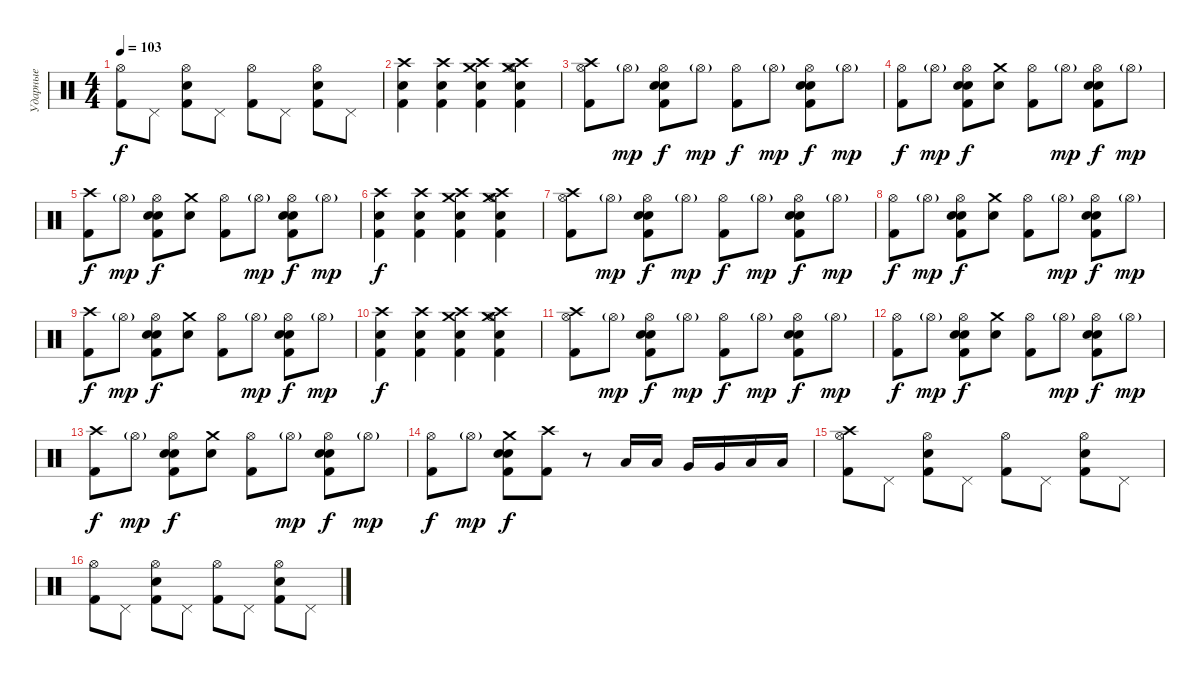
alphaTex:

\track ("Ударные" "Ударные") {instrument percussion}
\staff {score}
\articulation defaults
\ts (4 4)
\tempo 103
\clef neutral
\ks c
("Hi-Hat (open)" "Kick (hit) 2").8{dy f} "Pedal Hi-Hat (hit)".8 ("Hi-Hat (open)" "Snare (hit) 2" "Kick (hit) 2").8 "Pedal Hi-Hat (hit)".8 ("Hi-Hat (open)" "Kick (hit) 2").8 "Pedal Hi-Hat (hit)".8 ("Hi-Hat (open)" "Snare (hit) 2" "Kick (hit) 2").8 "Pedal Hi-Hat (hit)".8 |
("Crash high (hit)" "Snare (hit) 2" "Kick (hit) 2").4 ("Crash high (hit)" "Snare (hit) 2" "Kick (hit) 2").4 ("Crash medium (hit)" "Crash high (hit)" "Snare (hit) 2" "Kick (hit) 2").4 ("Crash medium (hit)" "Crash high (hit)" "Snare (hit) 2" "Hi-Hat (open)" "Kick (hit) 2").4 |
("Crash high (hit)" "Hi-Hat (open)" "Kick (hit) 2").8 "Hi-Hat (open)"{g}.8{dy mp} ("Hi-Hat (open)" "Snare (hit) 2" "Hand Clap (hit)" "Kick (hit) 2").8{dy f} "Hi-Hat (open)"{g}.8{dy mp} ("Hi-Hat (open)" "Kick (hit) 2").8{dy f} "Hi-Hat (open)"{g}.8{dy mp} ("Hi-Hat (open)" "Snare (hit) 2" "Hand Clap (hit)" "Kick (hit) 2").8{dy f} "Hi-Hat (open)"{g}.8{dy mp} |
("Hi-Hat (open)" "Kick (hit) 2").8{dy f} "Hi-Hat (open)"{g}.8{dy mp} ("Hi-Hat (open)" "Snare (hit) 2" "Hand Clap (hit)" "Kick (hit) 2").8{dy f} ("Crash medium (hit)" "Snare (hit) 2").8 ("Hi-Hat (open)" "Kick (hit) 2").8 "Hi-Hat (open)"{g}.8{dy mp} ("Hi-Hat (open)" "Snare (hit) 2" "Hand Clap (hit)" "Kick (hit) 2").8{dy f} "Hi-Hat (open)"{g}.8{dy mp} |
("Crash high (hit)" "Kick (hit) 2").8{dy f} "Hi-Hat (open)"{g}.8{dy mp} ("Hi-Hat (open)" "Snare (hit) 2" "Hand Clap (hit)" "Kick (hit) 2").8{dy f} ("Crash medium (hit)" "Snare (hit) 2").8 ("Hi-Hat (open)" "Kick (hit) 2").8 "Hi-Hat (open)"{g}.8{dy mp} ("Hi-Hat (open)" "Snare (hit) 2" "Hand Clap (hit)" "Kick (hit) 2").8{dy f} "Hi-Hat (open)"{g}.8{dy mp} |
("Crash high (hit)" "Snare (hit) 2" "Kick (hit) 2").4{dy f} ("Crash high (hit)" "Snare (hit) 2" "Kick (hit) 2").4 ("Crash medium (hit)" "Crash high (hit)" "Snare (hit) 2" "Kick (hit) 2").4 ("Crash medium (hit)" "Crash high (hit)" "Snare (hit) 2" "Hi-Hat (open)" "Kick (hit) 2").4 |
("Crash high (hit)" "Hi-Hat (open)" "Kick (hit) 2").8 "Hi-Hat (open)"{g}.8{dy mp} ("Hi-Hat (open)" "Snare (hit) 2" "Hand Clap (hit)" "Kick (hit) 2").8{dy f} "Hi-Hat (open)"{g}.8{dy mp} ("Hi-Hat (open)" "Kick (hit) 2").8{dy f} "Hi-Hat (open)"{g}.8{dy mp} ("Hi-Hat (open)" "Snare (hit) 2" "Hand Clap (hit)" "Kick (hit) 2").8{dy f} "Hi-Hat (open)"{g}.8{dy mp} |
("Hi-Hat (open)" "Kick (hit) 2").8{dy f} "Hi-Hat (open)"{g}.8{dy mp} ("Hi-Hat (open)" "Snare (hit) 2" "Hand Clap (hit)" "Kick (hit) 2").8{dy f} ("Crash medium (hit)" "Snare (hit) 2").8 ("Hi-Hat (open)" "Kick (hit) 2").8 "Hi-Hat (open)"{g}.8{dy mp} ("Hi-Hat (open)" "Snare (hit) 2" "Hand Clap (hit)" "Kick (hit) 2").8{dy f} "Hi-Hat (open)"{g}.8{dy mp} |
("Crash high (hit)" "Kick (hit) 2").8{dy f} "Hi-Hat (open)"{g}.8{dy mp} ("Hi-Hat (open)" "Snare (hit) 2" "Hand Clap (hit)" "Kick (hit) 2").8{dy f} ("Crash medium (hit)" "Snare (hit) 2").8 ("Hi-Hat (open)" "Kick (hit) 2").8 "Hi-Hat (open)"{g}.8{dy mp} ("Hi-Hat (open)" "Snare (hit) 2" "Hand Clap (hit)" "Kick (hit) 2").8{dy f} "Hi-Hat (open)"{g}.8{dy mp} |
("Crash high (hit)" "Snare (hit) 2" "Kick (hit) 2").4{dy f} ("Crash high (hit)" "Snare (hit) 2" "Kick (hit) 2").4 ("Crash medium (hit)" "Crash high (hit)" "Snare (hit) 2" "Kick (hit) 2").4 ("Crash medium (hit)" "Crash high (hit)" "Snare (hit) 2" "Hi-Hat (open)" "Kick (hit) 2").4 |
("Crash high (hit)" "Hi-Hat (open)" "Kick (hit) 2").8 "Hi-Hat (open)"{g}.8{dy mp} ("Hi-Hat (open)" "Snare (hit) 2" "Hand Clap (hit)" "Kick (hit) 2").8{dy f} "Hi-Hat (open)"{g}.8{dy mp} ("Hi-Hat (open)" "Kick (hit) 2").8{dy f} "Hi-Hat (open)"{g}.8{dy mp} ("Hi-Hat (open)" "Snare (hit) 2" "Hand Clap (hit)" "Kick (hit) 2").8{dy f} "Hi-Hat (open)"{g}.8{dy mp} |
("Hi-Hat (open)" "Kick (hit) 2").8{dy f} "Hi-Hat (open)"{g}.8{dy mp} ("Hi-Hat (open)" "Snare (hit) 2" "Hand Clap (hit)" "Kick (hit) 2").8{dy f} ("Crash medium (hit)" "Snare (hit) 2").8 ("Hi-Hat (open)" "Kick (hit) 2").8 "Hi-Hat (open)"{g}.8{dy mp} ("Hi-Hat (open)" "Snare (hit) 2" "Hand Clap (hit)" "Kick (hit) 2").8{dy f} "Hi-Hat (open)"{g}.8{dy mp} |
("Crash high (hit)" "Kick (hit) 2").8{dy f} "Hi-Hat (open)"{g}.8{dy mp} ("Hi-Hat (open)" "Snare (hit) 2" "Hand Clap (hit)" "Kick (hit) 2").8{dy f} ("Crash medium (hit)" "Snare (hit) 2").8 ("Hi-Hat (open)" "Kick (hit) 2").8 "Hi-Hat (open)"{g}.8{dy mp} ("Hi-Hat (open)" "Snare (hit) 2" "Hand Clap (hit)" "Kick (hit) 2").8{dy f} "Hi-Hat (open)"{g}.8{dy mp} |
("Hi-Hat (open)" "Kick (hit) 2").8{dy f} "Hi-Hat (open)"{g}.8{dy mp} ("Crash medium (hit)" "Snare (hit) 2" "Hand Clap (hit)" "Kick (hit) 2").8{dy f} ("Crash high (hit)" "Kick (hit) 2").8 r.8 "Low Tom (hit)".16 "Low Tom (hit)".16 "Very Low Tom (hit)".16 "Very Low Tom (hit)".16 "Low Floor Tom (hit)".16 "Low Floor Tom (hit)".16 |
("Crash high (hit)" "Hi-Hat (open)" "Kick (hit) 2").8 "Pedal Hi-Hat (hit)".8 ("Hi-Hat (open)" "Snare (hit) 2" "Kick (hit) 2").8 "Pedal Hi-Hat (hit)".8 ("Hi-Hat (open)" "Kick (hit) 2").8 "Pedal Hi-Hat (hit)".8 ("Hi-Hat (open)" "Snare (hit) 2" "Kick (hit) 2").8 "Pedal Hi-Hat (hit)".8 |
("Hi-Hat (open)" "Kick (hit) 2").8 "Pedal Hi-Hat (hit)".8 ("Hi-Hat (open)" "Snare (hit) 2" "Kick (hit) 2").8 "Pedal Hi-Hat (hit)".8 ("Hi-Hat (open)" "Kick (hit) 2").8 "Pedal Hi-Hat (hit)".8 ("Hi-Hat (open)" "Snare (hit) 2" "Kick (hit) 2").8 "Pedal Hi-Hat (hit)".8
